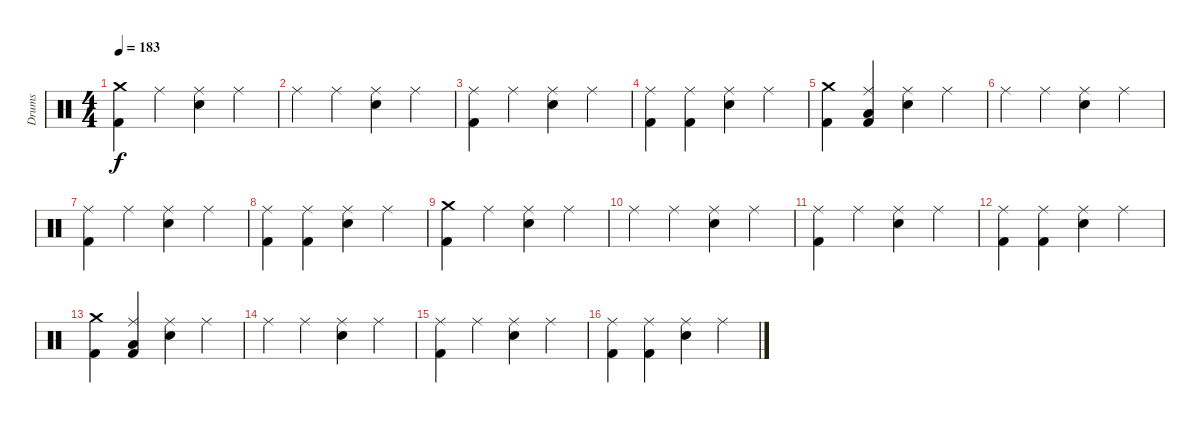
\track ("Drums" "Drums") {instrument percussion}
\staff {score}
\articulation defaults
\ts (4 4)
\section ("" "")
\tempo 183
\clef neutral
\ks c
("Crash medium (hit)" "Kick (hit) 2").4{dy f} "Ride (middle)".4 ("Ride (middle)" "Electric Snare (hit)").4 "Ride (middle)".4 |
"Ride (middle)".4 "Ride (middle)".4 ("Ride (middle)" "Electric Snare (hit)").4 "Ride (middle)".4 |
("Ride (middle)" "Kick (hit) 2").4 "Ride (middle)".4 ("Ride (middle)" "Electric Snare (hit)").4 "Ride (middle)".4 |
("Ride (middle)" "Kick (hit) 2").4 ("Ride (middle)" "Kick (hit) 2").4 ("Ride (middle)" "Electric Snare (hit)").4 "Ride (middle)".4 |
("Crash medium (hit)" "Kick (hit) 2").4 ("Ride (middle)" "Low Floor Tom (hit)" "Kick (hit) 2").4 ("Ride (middle)" "Electric Snare (hit)").4 "Ride (middle)".4 |
"Ride (middle)".4 "Ride (middle)".4 ("Ride (middle)" "Electric Snare (hit)").4 "Ride (middle)".4 |
("Ride (middle)" "Kick (hit) 2").4 "Ride (middle)".4 ("Ride (middle)" "Electric Snare (hit)").4 "Ride (middle)".4 |
("Ride (middle)" "Kick (hit) 2").4 ("Ride (middle)" "Kick (hit) 2").4 ("Ride (middle)" "Electric Snare (hit)").4 "Ride (middle)".4 |
\section ("" "")
("Crash medium (hit)" "Kick (hit) 2").4 "Ride (middle)".4 ("Ride (middle)" "Electric Snare (hit)").4 "Ride (middle)".4 |
"Ride (middle)".4 "Ride (middle)".4 ("Ride (middle)" "Electric Snare (hit)").4 "Ride (middle)".4 |
("Ride (middle)" "Kick (hit) 2").4 "Ride (middle)".4 ("Ride (middle)" "Electric Snare (hit)").4 "Ride (middle)".4 |
("Ride (middle)" "Kick (hit) 2").4 ("Ride (middle)" "Kick (hit) 2").4 ("Ride (middle)" "Electric Snare (hit)").4 "Ride (middle)".4 |
("Crash medium (hit)" "Kick (hit) 2").4 ("Ride (middle)" "Low Floor Tom (hit)" "Kick (hit) 2").4 ("Ride (middle)" "Electric Snare (hit)").4 "Ride (middle)".4 |
"Ride (middle)".4 "Ride (middle)".4 ("Ride (middle)" "Electric Snare (hit)").4 "Ride (middle)".4 |
("Ride (middle)" "Kick (hit) 2").4 "Ride (middle)".4 ("Ride (middle)" "Electric Snare (hit)").4 "Ride (middle)".4 |
("Ride (middle)" "Kick (hit) 2").4 ("Ride (middle)" "Kick (hit) 2").4 ("Ride (middle)" "Electric Snare (hit)").4 "Ride (middle)".4
